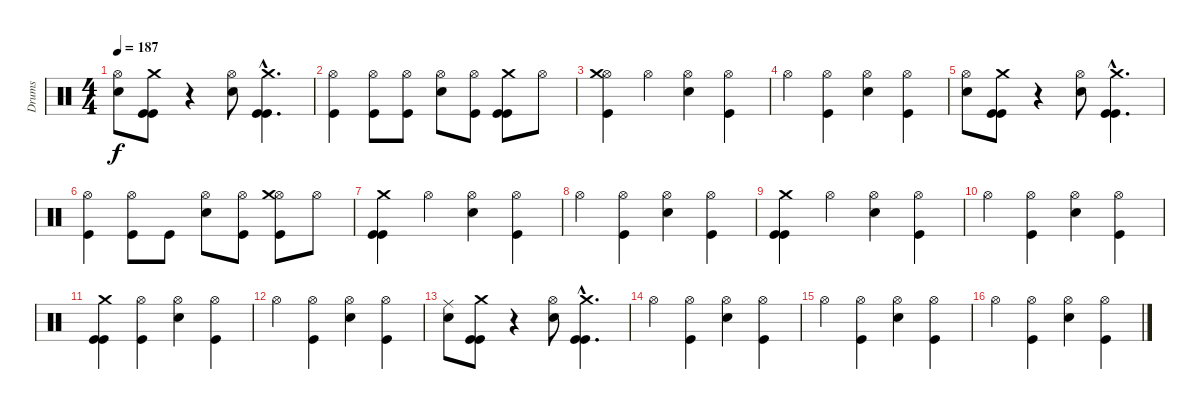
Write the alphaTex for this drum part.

\track ("Drums" "Drums") {instrument percussion}
\staff {score}
\articulation defaults
\ts (4 4)
\tempo 187
\clef neutral
\ks c
("Hi-Hat (open)" "Electric Snare (hit)").8{dy f} ("Kick (hit)" "Kick (hit)" "Crash medium (hit)").8 r.4 ("Hi-Hat (open)" "Electric Snare (hit)").8 ("Kick (hit)"{hac} "Kick (hit)"{hac} "Crash medium (hit)"{hac}).4{d} |
("Hi-Hat (open)" "Kick (hit)").4 ("Hi-Hat (open)" "Kick (hit)").8 ("Hi-Hat (open)" "Kick (hit)").8 ("Hi-Hat (open)" "Electric Snare (hit)").8 ("Hi-Hat (open)" "Kick (hit)").8 ("Kick (hit)" "Kick (hit)" "Crash medium (hit)").8 "Hi-Hat (open)".8 |
("Kick (hit)" "Hi-Hat (open)" "Crash medium (hit)").4 "Hi-Hat (open)".4 ("Hi-Hat (open)" "Electric Snare (hit)").4 ("Hi-Hat (open)" "Kick (hit)").4 |
"Hi-Hat (open)".4 ("Hi-Hat (open)" "Kick (hit)").4 ("Hi-Hat (open)" "Electric Snare (hit)").4 ("Hi-Hat (open)" "Kick (hit)").4 |
("Hi-Hat (open)" "Electric Snare (hit)").8 ("Kick (hit)" "Kick (hit)" "Crash medium (hit)").8 r.4 ("Hi-Hat (open)" "Electric Snare (hit)").8 ("Kick (hit)"{hac} "Kick (hit)"{hac} "Crash medium (hit)"{hac}).4{d} |
("Hi-Hat (open)" "Kick (hit)").4 ("Hi-Hat (open)" "Kick (hit)").8 "Kick (hit)".8 ("Hi-Hat (open)" "Electric Snare (hit)").8 ("Hi-Hat (open)" "Kick (hit)").8 ("Hi-Hat (open)" "Kick (hit)" "Crash medium (hit)").8 "Hi-Hat (open)".8 |
("Kick (hit)" "Kick (hit)" "Crash medium (hit)").4 "Hi-Hat (open)".4 ("Hi-Hat (open)" "Electric Snare (hit)").4 ("Hi-Hat (open)" "Kick (hit)").4 |
"Hi-Hat (open)".4 ("Hi-Hat (open)" "Kick (hit)").4 ("Hi-Hat (open)" "Electric Snare (hit)").4 ("Hi-Hat (open)" "Kick (hit)").4 |
("Kick (hit)" "Kick (hit)" "Crash medium (hit)").4 "Hi-Hat (open)".4 ("Hi-Hat (open)" "Electric Snare (hit)").4 ("Hi-Hat (open)" "Kick (hit)").4 |
"Hi-Hat (open)".4 ("Hi-Hat (open)" "Kick (hit)").4 ("Hi-Hat (open)" "Electric Snare (hit)").4 ("Hi-Hat (open)" "Kick (hit)").4 |
("Kick (hit)" "Kick (hit)" "Crash medium (hit)").4 ("Hi-Hat (open)" "Kick (hit)").4 ("Hi-Hat (open)" "Electric Snare (hit)").4 ("Hi-Hat (open)" "Kick (hit)").4 |
"Hi-Hat (open)".4 ("Hi-Hat (open)" "Kick (hit)").4 ("Hi-Hat (open)" "Electric Snare (hit)").4 ("Hi-Hat (open)" "Kick (hit)").4 |
("Ride (middle)" "Electric Snare (hit)").8 ("Kick (hit)" "Kick (hit)" "Crash medium (hit)").8 r.4 ("Hi-Hat (open)" "Electric Snare (hit)").8 ("Kick (hit)"{hac} "Kick (hit)"{hac} "Crash medium (hit)"{hac}).4{d} |
"Hi-Hat (open)".4 ("Hi-Hat (open)" "Kick (hit)").4 ("Hi-Hat (open)" "Electric Snare (hit)").4 ("Hi-Hat (open)" "Kick (hit)").4 |
"Hi-Hat (open)".4 ("Hi-Hat (open)" "Kick (hit)").4 ("Hi-Hat (open)" "Electric Snare (hit)").4 ("Hi-Hat (open)" "Kick (hit)").4 |
"Hi-Hat (open)".4 ("Hi-Hat (open)" "Kick (hit)").4 ("Hi-Hat (open)" "Electric Snare (hit)").4 ("Hi-Hat (open)" "Kick (hit)").4
